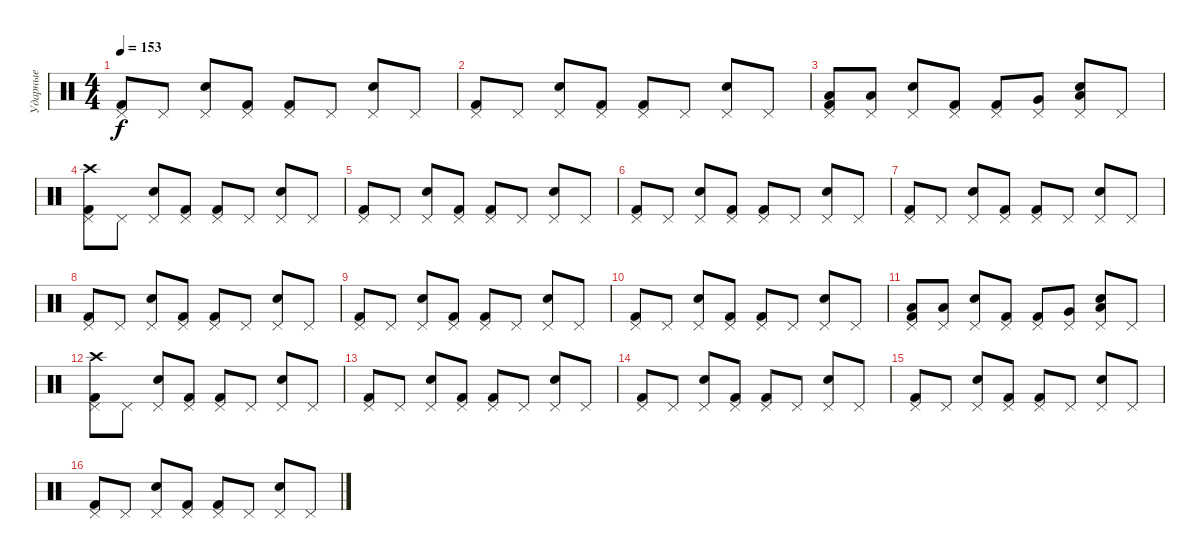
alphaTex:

\track ("Ударные" "Ударные") {instrument percussion}
\staff {score}
\articulation defaults
\ts (4 4)
\tempo 153
\clef neutral
\ks c
("Pedal Hi-Hat (hit)" "Kick (hit) 2").8{dy f} "Pedal Hi-Hat (hit)".8 ("Electric Snare (hit)" "Pedal Hi-Hat (hit)").8 ("Pedal Hi-Hat (hit)" "Kick (hit) 2").8 ("Pedal Hi-Hat (hit)" "Kick (hit) 2").8 "Pedal Hi-Hat (hit)".8 ("Electric Snare (hit)" "Pedal Hi-Hat (hit)").8 "Pedal Hi-Hat (hit)".8 |
("Pedal Hi-Hat (hit)" "Kick (hit) 2").8 "Pedal Hi-Hat (hit)".8 ("Electric Snare (hit)" "Pedal Hi-Hat (hit)").8 ("Pedal Hi-Hat (hit)" "Kick (hit) 2").8 ("Pedal Hi-Hat (hit)" "Kick (hit) 2").8 "Pedal Hi-Hat (hit)".8 ("Electric Snare (hit)" "Pedal Hi-Hat (hit)").8 "Pedal Hi-Hat (hit)".8 |
("Low Tom (hit)" "Pedal Hi-Hat (hit)" "Kick (hit) 2").8 ("Low Tom (hit)" "Pedal Hi-Hat (hit)").8 ("Electric Snare (hit)" "Pedal Hi-Hat (hit)").8 ("Pedal Hi-Hat (hit)" "Kick (hit) 2").8 ("Pedal Hi-Hat (hit)" "Kick (hit) 2").8 ("Very Low Tom (hit)" "Pedal Hi-Hat (hit)").8 ("Low Floor Tom (hit)" "Electric Snare (hit)" "Pedal Hi-Hat (hit)").8 "Pedal Hi-Hat (hit)".8 |
("Crash high (hit)" "Pedal Hi-Hat (hit)" "Kick (hit) 2").8 "Pedal Hi-Hat (hit)".8 ("Electric Snare (hit)" "Pedal Hi-Hat (hit)").8 ("Pedal Hi-Hat (hit)" "Kick (hit) 2").8 ("Pedal Hi-Hat (hit)" "Kick (hit) 2").8 "Pedal Hi-Hat (hit)".8 ("Electric Snare (hit)" "Pedal Hi-Hat (hit)").8 "Pedal Hi-Hat (hit)".8 |
("Pedal Hi-Hat (hit)" "Kick (hit) 2").8 "Pedal Hi-Hat (hit)".8 ("Electric Snare (hit)" "Pedal Hi-Hat (hit)").8 ("Pedal Hi-Hat (hit)" "Kick (hit) 2").8 ("Pedal Hi-Hat (hit)" "Kick (hit) 2").8 "Pedal Hi-Hat (hit)".8 ("Electric Snare (hit)" "Pedal Hi-Hat (hit)").8 "Pedal Hi-Hat (hit)".8 |
("Pedal Hi-Hat (hit)" "Kick (hit) 2").8 "Pedal Hi-Hat (hit)".8 ("Electric Snare (hit)" "Pedal Hi-Hat (hit)").8 ("Pedal Hi-Hat (hit)" "Kick (hit) 2").8 ("Pedal Hi-Hat (hit)" "Kick (hit) 2").8 "Pedal Hi-Hat (hit)".8 ("Electric Snare (hit)" "Pedal Hi-Hat (hit)").8 "Pedal Hi-Hat (hit)".8 |
("Pedal Hi-Hat (hit)" "Kick (hit) 2").8 "Pedal Hi-Hat (hit)".8 ("Electric Snare (hit)" "Pedal Hi-Hat (hit)").8 ("Pedal Hi-Hat (hit)" "Kick (hit) 2").8 ("Pedal Hi-Hat (hit)" "Kick (hit) 2").8 "Pedal Hi-Hat (hit)".8 ("Electric Snare (hit)" "Pedal Hi-Hat (hit)").8 "Pedal Hi-Hat (hit)".8 |
("Pedal Hi-Hat (hit)" "Kick (hit) 2").8 "Pedal Hi-Hat (hit)".8 ("Electric Snare (hit)" "Pedal Hi-Hat (hit)").8 ("Pedal Hi-Hat (hit)" "Kick (hit) 2").8 ("Pedal Hi-Hat (hit)" "Kick (hit) 2").8 "Pedal Hi-Hat (hit)".8 ("Electric Snare (hit)" "Pedal Hi-Hat (hit)").8 "Pedal Hi-Hat (hit)".8 |
("Pedal Hi-Hat (hit)" "Kick (hit) 2").8 "Pedal Hi-Hat (hit)".8 ("Electric Snare (hit)" "Pedal Hi-Hat (hit)").8 ("Pedal Hi-Hat (hit)" "Kick (hit) 2").8 ("Pedal Hi-Hat (hit)" "Kick (hit) 2").8 "Pedal Hi-Hat (hit)".8 ("Electric Snare (hit)" "Pedal Hi-Hat (hit)").8 "Pedal Hi-Hat (hit)".8 |
("Pedal Hi-Hat (hit)" "Kick (hit) 2").8 "Pedal Hi-Hat (hit)".8 ("Electric Snare (hit)" "Pedal Hi-Hat (hit)").8 ("Pedal Hi-Hat (hit)" "Kick (hit) 2").8 ("Pedal Hi-Hat (hit)" "Kick (hit) 2").8 "Pedal Hi-Hat (hit)".8 ("Electric Snare (hit)" "Pedal Hi-Hat (hit)").8 "Pedal Hi-Hat (hit)".8 |
("Low Tom (hit)" "Pedal Hi-Hat (hit)" "Kick (hit) 2").8 ("Low Tom (hit)" "Pedal Hi-Hat (hit)").8 ("Electric Snare (hit)" "Pedal Hi-Hat (hit)").8 ("Pedal Hi-Hat (hit)" "Kick (hit) 2").8 ("Pedal Hi-Hat (hit)" "Kick (hit) 2").8 ("Very Low Tom (hit)" "Pedal Hi-Hat (hit)").8 ("Low Floor Tom (hit)" "Electric Snare (hit)" "Pedal Hi-Hat (hit)").8 "Pedal Hi-Hat (hit)".8 |
("Crash high (hit)" "Pedal Hi-Hat (hit)" "Kick (hit) 2").8 "Pedal Hi-Hat (hit)".8 ("Electric Snare (hit)" "Pedal Hi-Hat (hit)").8 ("Pedal Hi-Hat (hit)" "Kick (hit) 2").8 ("Pedal Hi-Hat (hit)" "Kick (hit) 2").8 "Pedal Hi-Hat (hit)".8 ("Electric Snare (hit)" "Pedal Hi-Hat (hit)").8 "Pedal Hi-Hat (hit)".8 |
("Pedal Hi-Hat (hit)" "Kick (hit) 2").8 "Pedal Hi-Hat (hit)".8 ("Electric Snare (hit)" "Pedal Hi-Hat (hit)").8 ("Pedal Hi-Hat (hit)" "Kick (hit) 2").8 ("Pedal Hi-Hat (hit)" "Kick (hit) 2").8 "Pedal Hi-Hat (hit)".8 ("Electric Snare (hit)" "Pedal Hi-Hat (hit)").8 "Pedal Hi-Hat (hit)".8 |
("Pedal Hi-Hat (hit)" "Kick (hit) 2").8 "Pedal Hi-Hat (hit)".8 ("Electric Snare (hit)" "Pedal Hi-Hat (hit)").8 ("Pedal Hi-Hat (hit)" "Kick (hit) 2").8 ("Pedal Hi-Hat (hit)" "Kick (hit) 2").8 "Pedal Hi-Hat (hit)".8 ("Electric Snare (hit)" "Pedal Hi-Hat (hit)").8 "Pedal Hi-Hat (hit)".8 |
("Pedal Hi-Hat (hit)" "Kick (hit) 2").8 "Pedal Hi-Hat (hit)".8 ("Electric Snare (hit)" "Pedal Hi-Hat (hit)").8 ("Pedal Hi-Hat (hit)" "Kick (hit) 2").8 ("Pedal Hi-Hat (hit)" "Kick (hit) 2").8 "Pedal Hi-Hat (hit)".8 ("Electric Snare (hit)" "Pedal Hi-Hat (hit)").8 "Pedal Hi-Hat (hit)".8 |
("Pedal Hi-Hat (hit)" "Kick (hit) 2").8 "Pedal Hi-Hat (hit)".8 ("Electric Snare (hit)" "Pedal Hi-Hat (hit)").8 ("Pedal Hi-Hat (hit)" "Kick (hit) 2").8 ("Pedal Hi-Hat (hit)" "Kick (hit) 2").8 "Pedal Hi-Hat (hit)".8 ("Electric Snare (hit)" "Pedal Hi-Hat (hit)").8 "Pedal Hi-Hat (hit)".8
